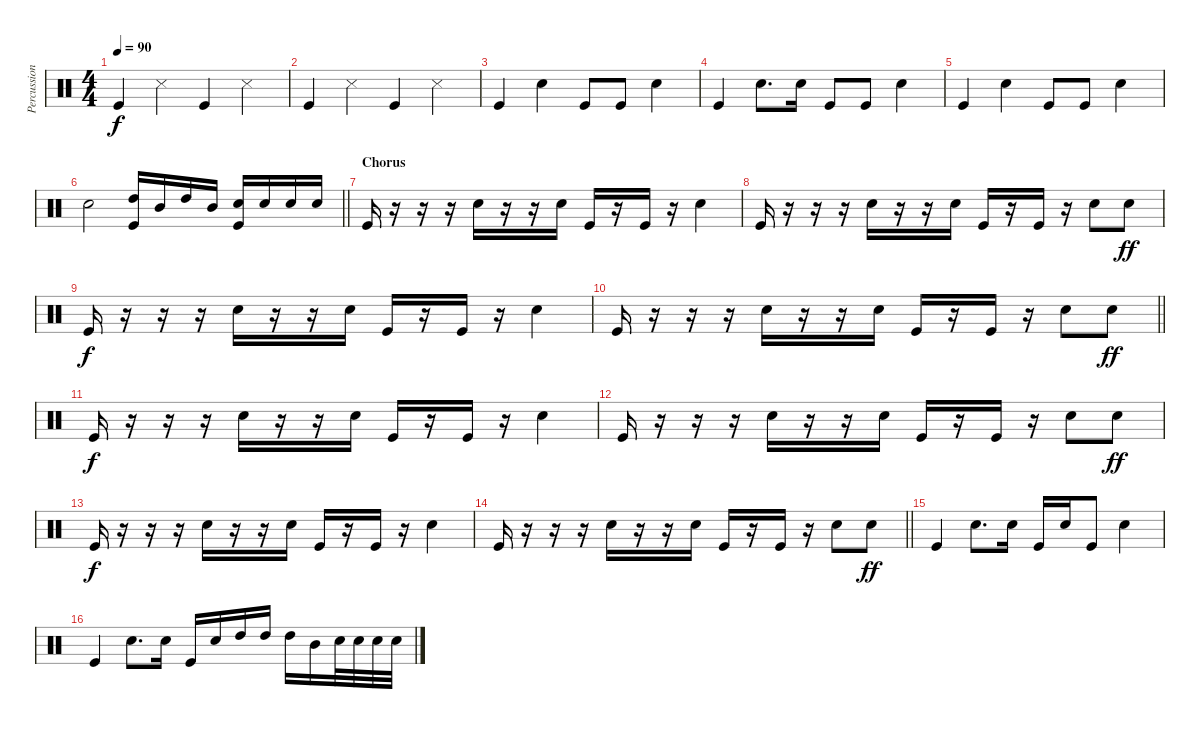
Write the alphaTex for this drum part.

\track ("Percussion" "Percussion") {instrument percussion}
\staff
\articulation defaults
\ts (4 4)
\tempo 90
\clef neutral
\ks c "Kick (hit)".4{dy f} "Snare (side stick) 3".4 "Kick (hit)".4 "Snare (side stick) 3".4
|
"Kick (hit)".4 "Snare (side stick) 3".4 "Kick (hit)".4 "Snare (side stick) 3".4 |
"Kick (hit)".4 "Electric Snare (hit)".4 "Kick (hit)".8 "Kick (hit)".8 "Electric Snare (hit)".4 |
"Kick (hit)".4 "Electric Snare (hit)".8{d} "Electric Snare (hit)".16 "Kick (hit)".8 "Kick (hit)".8 "Electric Snare (hit)".4 |
"Kick (hit)".4 "Electric Snare (hit)".4 "Kick (hit)".8 "Kick (hit)".8 "Electric Snare (hit)".4 |
\barLineRight lightlight "Electric Snare (hit)".2
("Kick (hit)" "High Tom (hit)").16 "Mid Tom (hit)".16 "High Tom (hit)".16 "Mid Tom (hit)".16 ("Kick (hit)" "Electric Snare (hit)").16 "Electric Snare (hit)".16 "Electric Snare (hit)".16 "Electric Snare (hit)".16 |
\section ("" "Chorus")
"Kick (hit)".16 r.16 r.16 r.16 "Electric Snare (hit)".16 r.16 r.16 "Electric Snare (hit)".16 "Kick (hit)".16 r.16 "Kick (hit)".16 r.16 "Electric Snare (hit)".4 |
"Kick (hit)".16 r.16 r.16 r.16 "Electric Snare (hit)".16 r.16 r.16 "Electric Snare (hit)".16 "Kick (hit)".16 r.16 "Kick (hit)".16 r.16 "Electric Snare (hit)".8 "Electric Snare (hit)".8{dy ff} |
"Kick (hit)".16{dy f} r.16 r.16 r.16 "Electric Snare (hit)".16 r.16 r.16 "Electric Snare (hit)".16 "Kick (hit)".16 r.16 "Kick (hit)".16 r.16 "Electric Snare (hit)".4 |
\barLineRight lightlight "Kick (hit)".16
r.16 r.16 r.16 "Electric Snare (hit)".16 r.16 r.16 "Electric Snare (hit)".16 "Kick (hit)".16 r.16 "Kick (hit)".16 r.16 "Electric Snare (hit)".8 "Electric Snare (hit)".8{dy ff} |
"Kick (hit)".16{dy f} r.16 r.16 r.16 "Electric Snare (hit)".16 r.16 r.16 "Electric Snare (hit)".16 "Kick (hit)".16 r.16 "Kick (hit)".16 r.16 "Electric Snare (hit)".4 |
"Kick (hit)".16 r.16 r.16 r.16 "Electric Snare (hit)".16 r.16 r.16 "Electric Snare (hit)".16 "Kick (hit)".16 r.16 "Kick (hit)".16 r.16 "Electric Snare (hit)".8 "Electric Snare (hit)".8{dy ff} |
"Kick (hit)".16{dy f} r.16 r.16 r.16 "Electric Snare (hit)".16 r.16 r.16 "Electric Snare (hit)".16 "Kick (hit)".16 r.16 "Kick (hit)".16 r.16 "Electric Snare (hit)".4 |
\barLineRight lightlight "Kick (hit)".16
r.16 r.16 r.16 "Electric Snare (hit)".16 r.16 r.16 "Electric Snare (hit)".16 "Kick (hit)".16 r.16 "Kick (hit)".16 r.16 "Electric Snare (hit)".8 "Electric Snare (hit)".8{dy ff} |
"Kick (hit)".4 "Electric Snare (hit)".8{d} "Electric Snare (hit)".16 "Kick (hit)".16 "Electric Snare (hit)".16 "Kick (hit)".8 "Electric Snare (hit)".4 |
"Kick (hit)".4 "Electric Snare (hit)".8{d} "Electric Snare (hit)".16 "Kick (hit)".16 "Electric Snare (hit)".16 "High Tom (hit)".16 "High Tom (hit)".16 "High Tom (hit)".16 "Mid Tom (hit)".16 "Electric Snare (hit)".32 "Electric Snare (hit)".32 "Electric Snare (hit)".32 "Electric Snare (hit)".32
